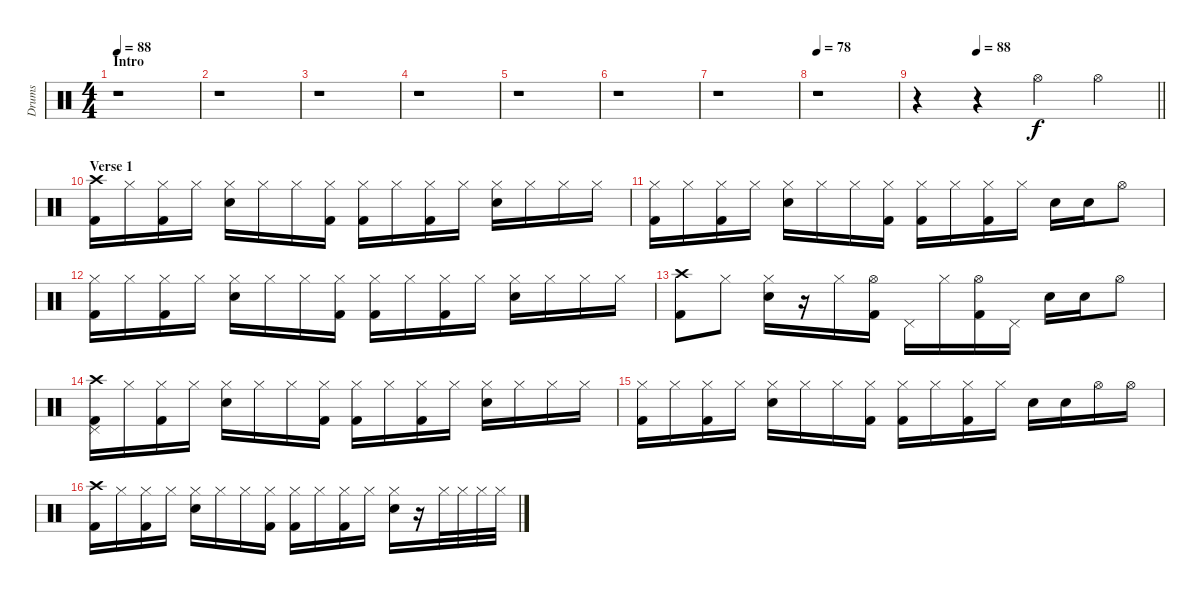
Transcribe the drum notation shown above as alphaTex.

\track ("Drums" "Drums") {instrument percussion}
\staff {score}
\articulation defaults
\ts (4 4)
\section ("" "Intro")
\tempo 88
\tempo 83
\tempo 88
\clef neutral
\ks c
r.1{dy f} |
r.1 |
r.1 |
r.1 |
r.1 |
r.1 |
r.1 |
\tempo 78
r.1 |
\tempo (88 0.25)
\barLineRight lightlight
r.4 r.4 "Hi-Hat (open)".4 "Hi-Hat (open)".4 |
\section ("" "Verse 1")
("Kick (hit) 2" "Crash high (hit)").16 "Hi-Hat (closed)".16 ("Kick (hit) 2" "Hi-Hat (closed)").16 "Hi-Hat (closed)".16 ("Snare (hit) 2" "Hi-Hat (closed)").16 "Hi-Hat (closed)".16 "Hi-Hat (closed)".16 ("Kick (hit) 2" "Hi-Hat (closed)").16 ("Kick (hit) 2" "Hi-Hat (closed)").16 "Hi-Hat (closed)".16 ("Kick (hit) 2" "Hi-Hat (closed)").16 "Hi-Hat (closed)".16 ("Snare (hit) 2" "Hi-Hat (closed)").16 "Hi-Hat (closed)".16 "Hi-Hat (closed)".16 "Hi-Hat (closed)".16 |
("Kick (hit) 2" "Hi-Hat (closed)").16 "Hi-Hat (closed)".16 ("Kick (hit) 2" "Hi-Hat (closed)").16 "Hi-Hat (closed)".16 ("Snare (hit) 2" "Hi-Hat (closed)").16 "Hi-Hat (closed)".16 "Hi-Hat (closed)".16 ("Kick (hit) 2" "Hi-Hat (closed)").16 ("Kick (hit) 2" "Hi-Hat (closed)").16 "Hi-Hat (closed)".16 ("Kick (hit) 2" "Hi-Hat (closed)").16 "Hi-Hat (closed)".16 "Snare (hit) 2".16 "Snare (hit) 2".16 "Hi-Hat (open)".8 |
("Kick (hit) 2" "Hi-Hat (closed)").16 "Hi-Hat (closed)".16 ("Kick (hit) 2" "Hi-Hat (closed)").16 "Hi-Hat (closed)".16 ("Snare (hit) 2" "Hi-Hat (closed)").16 "Hi-Hat (closed)".16 "Hi-Hat (closed)".16 ("Kick (hit) 2" "Hi-Hat (closed)").16 ("Kick (hit) 2" "Hi-Hat (closed)").16 "Hi-Hat (closed)".16 ("Kick (hit) 2" "Hi-Hat (closed)").16 "Hi-Hat (closed)".16 ("Snare (hit) 2" "Hi-Hat (closed)").16 "Hi-Hat (closed)".16 "Hi-Hat (closed)".16 "Hi-Hat (closed)".16 |
("Kick (hit) 2" "Crash high (hit)").8 "Hi-Hat (closed)".8 ("Snare (hit) 2" "Hi-Hat (closed)").16 r.16 "Hi-Hat (closed)".16 ("Kick (hit) 2" "Hi-Hat (open)").16 "Pedal Hi-Hat (hit)".16 "Hi-Hat (closed)".16 ("Kick (hit) 2" "Hi-Hat (open)").16 "Pedal Hi-Hat (hit)".16 "Snare (hit) 2".16 "Snare (hit) 2".16 "Hi-Hat (open)".8 |
("Pedal Hi-Hat (hit)" "Kick (hit) 2" "Crash high (hit)").16 "Hi-Hat (closed)".16 ("Kick (hit) 2" "Hi-Hat (closed)").16 "Hi-Hat (closed)".16 ("Snare (hit) 2" "Hi-Hat (closed)").16 "Hi-Hat (closed)".16 "Hi-Hat (closed)".16 ("Kick (hit) 2" "Hi-Hat (closed)").16 ("Kick (hit) 2" "Hi-Hat (closed)").16 "Hi-Hat (closed)".16 ("Kick (hit) 2" "Hi-Hat (closed)").16 "Hi-Hat (closed)".16 ("Snare (hit) 2" "Hi-Hat (closed)").16 "Hi-Hat (closed)".16 "Hi-Hat (closed)".16 "Hi-Hat (closed)".16 |
("Kick (hit) 2" "Hi-Hat (closed)").16 "Hi-Hat (closed)".16 ("Kick (hit) 2" "Hi-Hat (closed)").16 "Hi-Hat (closed)".16 ("Snare (hit) 2" "Hi-Hat (closed)").16 "Hi-Hat (closed)".16 "Hi-Hat (closed)".16 ("Kick (hit) 2" "Hi-Hat (closed)").16 ("Kick (hit) 2" "Hi-Hat (closed)").16 "Hi-Hat (closed)".16 ("Kick (hit) 2" "Hi-Hat (closed)").16 "Hi-Hat (closed)".16 "Snare (hit) 2".16 "Snare (hit) 2".16 "Hi-Hat (open)".16 "Hi-Hat (open)".16 |
("Kick (hit) 2" "Crash high (hit)").16 "Hi-Hat (closed)".16 ("Kick (hit) 2" "Hi-Hat (closed)").16 "Hi-Hat (closed)".16 ("Snare (hit) 2" "Hi-Hat (closed)").16 "Hi-Hat (closed)".16 "Hi-Hat (closed)".16 ("Kick (hit) 2" "Hi-Hat (closed)").16 ("Kick (hit) 2" "Hi-Hat (closed)").16 "Hi-Hat (closed)".16 ("Kick (hit) 2" "Hi-Hat (closed)").16 "Hi-Hat (closed)".16 ("Snare (hit) 2" "Hi-Hat (closed)").16 r.16 "Hi-Hat (closed)".32 "Hi-Hat (closed)".32 "Hi-Hat (closed)".32 "Hi-Hat (closed)".32
